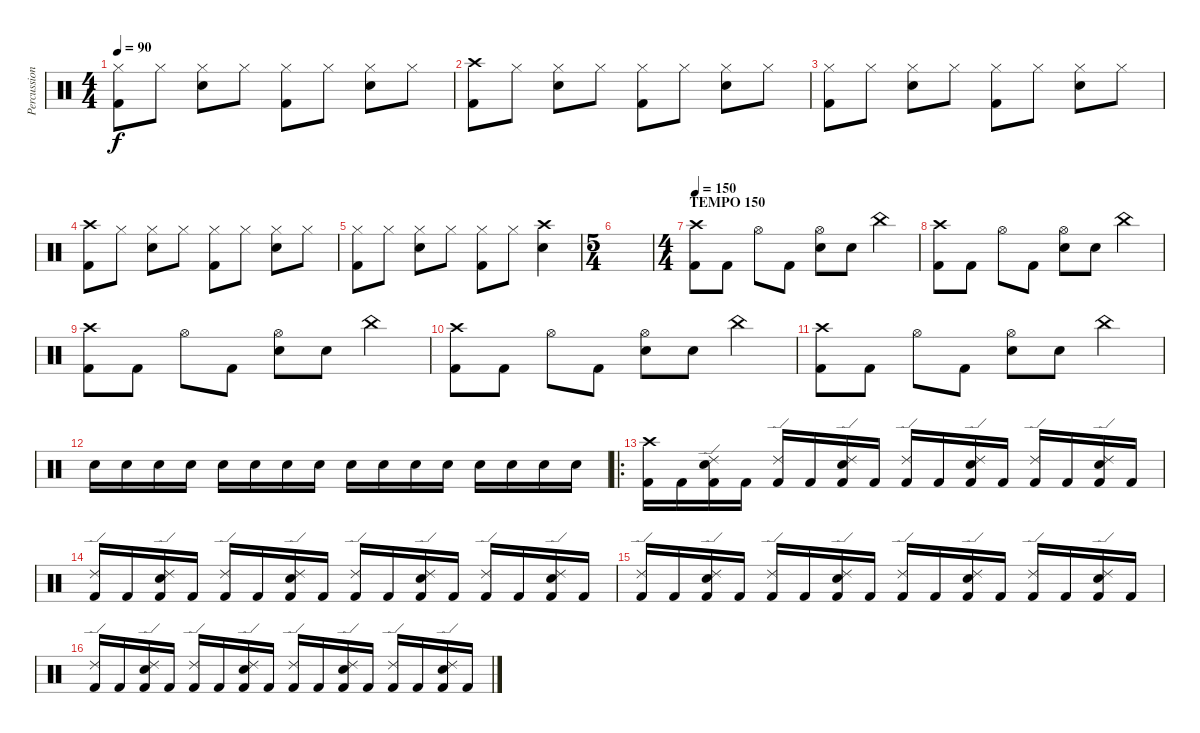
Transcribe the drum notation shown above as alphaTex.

\track ("Percussion" "Percussion") {instrument percussion}
\staff {score}
\articulation defaults
\ts (4 4)
\tempo 90
\clef neutral
\ks c
("Kick (hit) 2" "Hi-Hat (closed)").8{dy f} "Hi-Hat (closed)".8 ("Snare (hit) 2" "Hi-Hat (closed)").8 "Hi-Hat (closed)".8 ("Kick (hit) 2" "Hi-Hat (closed)").8 "Hi-Hat (closed)".8 ("Snare (hit) 2" "Hi-Hat (closed)").8 "Hi-Hat (closed)".8 |
("Kick (hit) 2" "Crash high (hit)").8 "Hi-Hat (closed)".8 ("Snare (hit) 2" "Hi-Hat (closed)").8 "Hi-Hat (closed)".8 ("Kick (hit) 2" "Hi-Hat (closed)").8 "Hi-Hat (closed)".8 ("Snare (hit) 2" "Hi-Hat (closed)").8 "Hi-Hat (closed)".8 |
("Kick (hit) 2" "Hi-Hat (closed)").8 "Hi-Hat (closed)".8 ("Snare (hit) 2" "Hi-Hat (closed)").8 "Hi-Hat (closed)".8 ("Kick (hit) 2" "Hi-Hat (closed)").8 "Hi-Hat (closed)".8 ("Snare (hit) 2" "Hi-Hat (closed)").8 "Hi-Hat (closed)".8 |
("Kick (hit) 2" "Crash high (hit)").8 "Hi-Hat (closed)".8 ("Snare (hit) 2" "Hi-Hat (closed)").8 "Hi-Hat (closed)".8 ("Kick (hit) 2" "Hi-Hat (closed)").8 "Hi-Hat (closed)".8 ("Snare (hit) 2" "Hi-Hat (closed)").8 "Hi-Hat (closed)".8 |
("Kick (hit) 2" "Hi-Hat (closed)").8 "Hi-Hat (closed)".8 ("Snare (hit) 2" "Hi-Hat (closed)").8 "Hi-Hat (closed)".8 ("Kick (hit) 2" "Hi-Hat (closed)").8 "Hi-Hat (closed)".8 ("Snare (hit) 2" "Crash high (hit)").4 |
\ts (5 4)
|
\ts (4 4)
\section ("" "TEMPO 150")
\tempo 150
("Kick (hit) 2" "Crash high (hit)").8 "Kick (hit) 2".8 "Hi-Hat (open)".8 "Kick (hit) 2".8 ("Snare (hit) 2" "Hi-Hat (open)").8 "Snare (hit) 2".8 "China (hit)".4 |
("Kick (hit) 2" "Crash high (hit)").8 "Kick (hit) 2".8 "Hi-Hat (open)".8 "Kick (hit) 2".8 ("Snare (hit) 2" "Hi-Hat (open)").8 "Snare (hit) 2".8 "China (hit)".4 |
("Kick (hit) 2" "Crash high (hit)").8 "Kick (hit) 2".8 "Hi-Hat (open)".8 "Kick (hit) 2".8 ("Snare (hit) 2" "Hi-Hat (open)").8 "Snare (hit) 2".8 "China (hit)".4 |
("Kick (hit) 2" "Crash high (hit)").8 "Kick (hit) 2".8 "Hi-Hat (open)".8 "Kick (hit) 2".8 ("Snare (hit) 2" "Hi-Hat (open)").8 "Snare (hit) 2".8 "China (hit)".4 |
("Kick (hit) 2" "Crash high (hit)").8 "Kick (hit) 2".8 "Hi-Hat (open)".8 "Kick (hit) 2".8 ("Snare (hit) 2" "Hi-Hat (open)").8 "Snare (hit) 2".8 "China (hit)".4 |
"Snare (hit) 2".16 "Snare (hit) 2".16 "Snare (hit) 2".16 "Snare (hit) 2".16 "Snare (hit) 2".16 "Snare (hit) 2".16 "Snare (hit) 2".16 "Snare (hit) 2".16 "Snare (hit) 2".16 "Snare (hit) 2".16 "Snare (hit) 2".16 "Snare (hit) 2".16 "Snare (hit) 2".16 "Snare (hit) 2".16 "Snare (hit) 2".16 "Snare (hit) 2".16 |
\ro
("Kick (hit) 2" "Crash high (hit)").16 "Kick (hit) 2".16 ("Kick (hit) 2" "Snare (hit) 2" "Ride (edge) 2").16 "Kick (hit) 2".16 ("Kick (hit) 2" "Ride (edge) 2").16 "Kick (hit) 2".16 ("Kick (hit) 2" "Snare (hit) 2" "Ride (edge) 2").16 "Kick (hit) 2".16 ("Kick (hit) 2" "Ride (edge) 2").16 "Kick (hit) 2".16 ("Kick (hit) 2" "Snare (hit) 2" "Ride (edge) 2").16 "Kick (hit) 2".16 ("Kick (hit) 2" "Ride (edge) 2").16 "Kick (hit) 2".16 ("Kick (hit) 2" "Snare (hit) 2" "Ride (edge) 2").16 "Kick (hit) 2".16 |
("Kick (hit) 2" "Ride (edge) 2").16 "Kick (hit) 2".16 ("Kick (hit) 2" "Snare (hit) 2" "Ride (edge) 2").16 "Kick (hit) 2".16 ("Kick (hit) 2" "Ride (edge) 2").16 "Kick (hit) 2".16 ("Kick (hit) 2" "Snare (hit) 2" "Ride (edge) 2").16 "Kick (hit) 2".16 ("Kick (hit) 2" "Ride (edge) 2").16 "Kick (hit) 2".16 ("Kick (hit) 2" "Snare (hit) 2" "Ride (edge) 2").16 "Kick (hit) 2".16 ("Kick (hit) 2" "Ride (edge) 2").16 "Kick (hit) 2".16 ("Kick (hit) 2" "Snare (hit) 2" "Ride (edge) 2").16 "Kick (hit) 2".16 |
("Kick (hit) 2" "Ride (edge) 2").16 "Kick (hit) 2".16 ("Kick (hit) 2" "Snare (hit) 2" "Ride (edge) 2").16 "Kick (hit) 2".16 ("Kick (hit) 2" "Ride (edge) 2").16 "Kick (hit) 2".16 ("Kick (hit) 2" "Snare (hit) 2" "Ride (edge) 2").16 "Kick (hit) 2".16 ("Kick (hit) 2" "Ride (edge) 2").16 "Kick (hit) 2".16 ("Kick (hit) 2" "Snare (hit) 2" "Ride (edge) 2").16 "Kick (hit) 2".16 ("Kick (hit) 2" "Ride (edge) 2").16 "Kick (hit) 2".16 ("Kick (hit) 2" "Snare (hit) 2" "Ride (edge) 2").16 "Kick (hit) 2".16 |
("Kick (hit) 2" "Ride (edge) 2").16 "Kick (hit) 2".16 ("Kick (hit) 2" "Snare (hit) 2" "Ride (edge) 2").16 "Kick (hit) 2".16 ("Kick (hit) 2" "Ride (edge) 2").16 "Kick (hit) 2".16 ("Kick (hit) 2" "Snare (hit) 2" "Ride (edge) 2").16 "Kick (hit) 2".16 ("Kick (hit) 2" "Ride (edge) 2").16 "Kick (hit) 2".16 ("Kick (hit) 2" "Snare (hit) 2" "Ride (edge) 2").16 "Kick (hit) 2".16 ("Kick (hit) 2" "Ride (edge) 2").16 "Kick (hit) 2".16 ("Kick (hit) 2" "Snare (hit) 2" "Ride (edge) 2").16 "Kick (hit) 2".16
